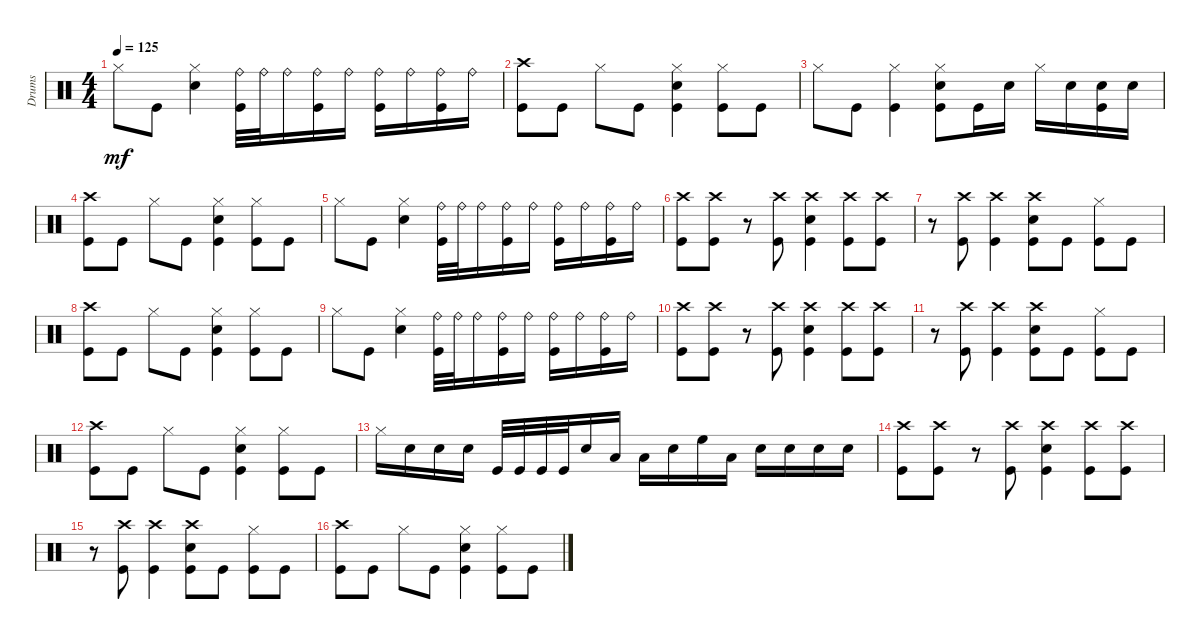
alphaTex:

\track ("Drums" "Drums") {instrument percussion}
\staff {score}
\articulation defaults
\ts (4 4)
\tempo 125
\clef neutral
\ks c "Hi-Hat (closed)".8{dy mf} "Kick (hit)".8
("Snare (hit) 2" "Hi-Hat (closed)").4 ("Kick (hit)" "Ride (bell)").32 "Ride (bell)".32 "Ride (bell)".16 ("Kick (hit)" "Ride (bell)").16 "Ride (bell)".16 ("Kick (hit)" "Ride (bell)").16 "Ride (bell)".16 ("Kick (hit)" "Ride (bell)").16 "Ride (bell)".16 |
("Kick (hit)" "Crash high (hit)").8 "Kick (hit)".8 "Hi-Hat (closed)".8 "Kick (hit)".8 ("Kick (hit)" "Snare (hit) 2" "Hi-Hat (closed)").4 ("Kick (hit)" "Hi-Hat (closed)").8 "Kick (hit)".8 |
"Hi-Hat (closed)".8 "Kick (hit)".8 ("Hi-Hat (closed)" "Kick (hit)").4 ("Snare (hit) 2" "Hi-Hat (closed)" "Kick (hit)").8 "Kick (hit)".16 "Snare (hit) 2".16 "Hi-Hat (closed)".16 "Snare (hit) 2".16 ("Snare (hit) 2" "Kick (hit)").16 "Snare (hit) 2".16 |
("Crash high (hit)" "Kick (hit)").8 "Kick (hit)".8 "Hi-Hat (closed)".8 "Kick (hit)".8 ("Snare (hit) 2" "Hi-Hat (closed)" "Kick (hit)").4 ("Hi-Hat (closed)" "Kick (hit)").8 "Kick (hit)".8 |
"Hi-Hat (closed)".8 "Kick (hit)".8 ("Snare (hit) 2" "Hi-Hat (closed)").4 ("Kick (hit)" "Ride (bell)").32 "Ride (bell)".32 "Ride (bell)".16 ("Kick (hit)" "Ride (bell)").16 "Ride (bell)".16 ("Kick (hit)" "Ride (bell)").16 "Ride (bell)".16 ("Kick (hit)" "Ride (bell)").16 "Ride (bell)".16 |
("Kick (hit)" "Crash high (hit)").8 ("Kick (hit)" "Crash high (hit)").8 r.8 ("Kick (hit)" "Crash high (hit)").8 ("Kick (hit)" "Snare (hit) 2" "Crash high (hit)").4 ("Kick (hit)" "Crash high (hit)").8 ("Kick (hit)" "Crash high (hit)").8 |
r.8 ("Kick (hit)" "Crash high (hit)").8 ("Kick (hit)" "Crash high (hit)").4 ("Kick (hit)" "Snare (hit) 2" "Crash high (hit)").8 "Kick (hit)".8 ("Kick (hit)" "Hi-Hat (closed)").8 "Kick (hit)".8 |
("Crash high (hit)" "Kick (hit)").8 "Kick (hit)".8 "Hi-Hat (closed)".8 "Kick (hit)".8 ("Snare (hit) 2" "Hi-Hat (closed)" "Kick (hit)").4 ("Hi-Hat (closed)" "Kick (hit)").8 "Kick (hit)".8 |
"Hi-Hat (closed)".8 "Kick (hit)".8 ("Snare (hit) 2" "Hi-Hat (closed)").4 ("Kick (hit)" "Ride (bell)").32 "Ride (bell)".32 "Ride (bell)".16 ("Kick (hit)" "Ride (bell)").16 "Ride (bell)".16 ("Kick (hit)" "Ride (bell)").16 "Ride (bell)".16 ("Kick (hit)" "Ride (bell)").16 "Ride (bell)".16 |
("Crash high (hit)" "Kick (hit)").8 ("Crash high (hit)" "Kick (hit)").8 r.8 ("Crash high (hit)" "Kick (hit)").8 ("Snare (hit) 2" "Crash high (hit)" "Kick (hit)").4 ("Crash high (hit)" "Kick (hit)").8 ("Crash high (hit)" "Kick (hit)").8 |
r.8 ("Crash high (hit)" "Kick (hit)").8 ("Crash high (hit)" "Kick (hit)").4 ("Snare (hit) 2" "Crash high (hit)" "Kick (hit)").8 "Kick (hit)".8 ("Hi-Hat (closed)" "Kick (hit)").8 "Kick (hit)".8 |
("Kick (hit)" "Crash high (hit)").8 "Kick (hit)".8 "Hi-Hat (closed)".8 "Kick (hit)".8 ("Kick (hit)" "Snare (hit) 2" "Hi-Hat (closed)").4 ("Kick (hit)" "Hi-Hat (closed)").8 "Kick (hit)".8 |
"Hi-Hat (closed)".16 "Snare (hit) 2".16 "Snare (hit) 2".16 "Snare (hit) 2".16 "Kick (hit)".32 "Kick (hit)".32 "Kick (hit)".32 "Kick (hit)".32 "Snare (hit) 2".16 "Low Floor Tom (hit)".16 "Low Tom (hit)".16 "Snare (hit) 2".16 "High Floor Tom (hit)".16 "Low Tom (hit)".16 "Snare (hit) 2".16 "Snare (hit) 2".16 "Snare (hit) 2".16 "Snare (hit) 2".16 |
("Kick (hit)" "Crash high (hit)").8 ("Kick (hit)" "Crash high (hit)").8 r.8 ("Kick (hit)" "Crash high (hit)").8 ("Kick (hit)" "Snare (hit) 2" "Crash high (hit)").4 ("Kick (hit)" "Crash high (hit)").8 ("Kick (hit)" "Crash high (hit)").8 |
r.8 ("Kick (hit)" "Crash high (hit)").8 ("Kick (hit)" "Crash high (hit)").4 ("Kick (hit)" "Snare (hit) 2" "Crash high (hit)").8 "Kick (hit)".8 ("Kick (hit)" "Hi-Hat (closed)").8 "Kick (hit)".8 |
("Crash high (hit)" "Kick (hit)").8 "Kick (hit)".8 "Hi-Hat (closed)".8 "Kick (hit)".8 ("Snare (hit) 2" "Hi-Hat (closed)" "Kick (hit)").4 ("Hi-Hat (closed)" "Kick (hit)").8 "Kick (hit)".8
